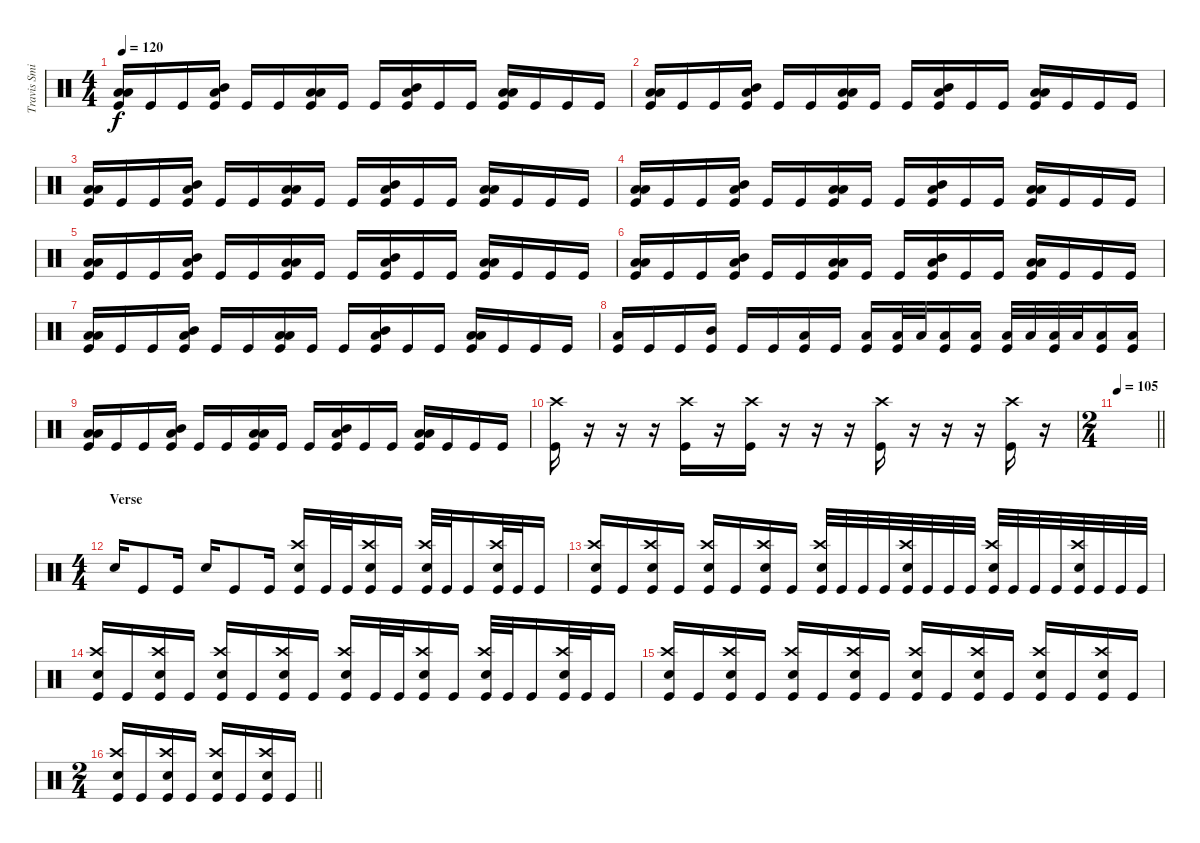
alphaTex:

\track ("Travis Smith" "Travis Smi") {instrument percussion}
\staff {score}
\articulation defaults
\ts (4 4)
\tempo 120
\clef neutral
\ks c
("Low Tom (hit)" "Low Floor Tom (hit)" "Kick (hit)").16{dy f} "Kick (hit)".16 "Kick (hit)".16 ("Mid Tom (hit)" "Low Floor Tom (hit)" "Kick (hit)").16 "Kick (hit)".16 "Kick (hit)".16 ("Low Tom (hit)" "Low Floor Tom (hit)" "Kick (hit)").16 "Kick (hit)".16 "Kick (hit)".16 ("Mid Tom (hit)" "Low Floor Tom (hit)" "Kick (hit)").16 "Kick (hit)".16 "Kick (hit)".16 ("Low Tom (hit)" "Low Floor Tom (hit)" "Kick (hit)").16 "Kick (hit)".16 "Kick (hit)".16 "Kick (hit)".16 |
("Low Tom (hit)" "Low Floor Tom (hit)" "Kick (hit)").16 "Kick (hit)".16 "Kick (hit)".16 ("Mid Tom (hit)" "Low Floor Tom (hit)" "Kick (hit)").16 "Kick (hit)".16 "Kick (hit)".16 ("Low Tom (hit)" "Low Floor Tom (hit)" "Kick (hit)").16 "Kick (hit)".16 "Kick (hit)".16 ("Mid Tom (hit)" "Low Floor Tom (hit)" "Kick (hit)").16 "Kick (hit)".16 "Kick (hit)".16 ("Low Tom (hit)" "Low Floor Tom (hit)" "Kick (hit)").16 "Kick (hit)".16 "Kick (hit)".16 "Kick (hit)".16 |
("Low Tom (hit)" "Low Floor Tom (hit)" "Kick (hit)").16 "Kick (hit)".16 "Kick (hit)".16 ("Mid Tom (hit)" "Low Floor Tom (hit)" "Kick (hit)").16 "Kick (hit)".16 "Kick (hit)".16 ("Low Tom (hit)" "Low Floor Tom (hit)" "Kick (hit)").16 "Kick (hit)".16 "Kick (hit)".16 ("Mid Tom (hit)" "Low Floor Tom (hit)" "Kick (hit)").16 "Kick (hit)".16 "Kick (hit)".16 ("Low Tom (hit)" "Low Floor Tom (hit)" "Kick (hit)").16 "Kick (hit)".16 "Kick (hit)".16 "Kick (hit)".16 |
("Low Tom (hit)" "Low Floor Tom (hit)" "Kick (hit)").16 "Kick (hit)".16 "Kick (hit)".16 ("Mid Tom (hit)" "Low Floor Tom (hit)" "Kick (hit)").16 "Kick (hit)".16 "Kick (hit)".16 ("Low Tom (hit)" "Low Floor Tom (hit)" "Kick (hit)").16 "Kick (hit)".16 "Kick (hit)".16 ("Mid Tom (hit)" "Low Floor Tom (hit)" "Kick (hit)").16 "Kick (hit)".16 "Kick (hit)".16 ("Low Tom (hit)" "Low Floor Tom (hit)" "Kick (hit)").16 "Kick (hit)".16 "Kick (hit)".16 "Kick (hit)".16 |
("Low Tom (hit)" "Low Floor Tom (hit)" "Kick (hit)").16 "Kick (hit)".16 "Kick (hit)".16 ("Mid Tom (hit)" "Low Floor Tom (hit)" "Kick (hit)").16 "Kick (hit)".16 "Kick (hit)".16 ("Low Tom (hit)" "Low Floor Tom (hit)" "Kick (hit)").16 "Kick (hit)".16 "Kick (hit)".16 ("Mid Tom (hit)" "Low Floor Tom (hit)" "Kick (hit)").16 "Kick (hit)".16 "Kick (hit)".16 ("Low Tom (hit)" "Low Floor Tom (hit)" "Kick (hit)").16 "Kick (hit)".16 "Kick (hit)".16 "Kick (hit)".16 |
("Low Tom (hit)" "Low Floor Tom (hit)" "Kick (hit)").16 "Kick (hit)".16 "Kick (hit)".16 ("Mid Tom (hit)" "Low Floor Tom (hit)" "Kick (hit)").16 "Kick (hit)".16 "Kick (hit)".16 ("Low Tom (hit)" "Low Floor Tom (hit)" "Kick (hit)").16 "Kick (hit)".16 "Kick (hit)".16 ("Mid Tom (hit)" "Low Floor Tom (hit)" "Kick (hit)").16 "Kick (hit)".16 "Kick (hit)".16 ("Low Tom (hit)" "Low Floor Tom (hit)" "Kick (hit)").16 "Kick (hit)".16 "Kick (hit)".16 "Kick (hit)".16 |
("Low Tom (hit)" "Low Floor Tom (hit)" "Kick (hit)").16 "Kick (hit)".16 "Kick (hit)".16 ("Mid Tom (hit)" "Low Floor Tom (hit)" "Kick (hit)").16 "Kick (hit)".16 "Kick (hit)".16 ("Low Tom (hit)" "Low Floor Tom (hit)" "Kick (hit)").16 "Kick (hit)".16 "Kick (hit)".16 ("Mid Tom (hit)" "Low Floor Tom (hit)" "Kick (hit)").16 "Kick (hit)".16 "Kick (hit)".16 ("Low Tom (hit)" "Low Floor Tom (hit)" "Kick (hit)").16 "Kick (hit)".16 "Kick (hit)".16 "Kick (hit)".16 |
("Low Tom (hit)" "Kick (hit)").16 "Kick (hit)".16 "Kick (hit)".16 ("Mid Tom (hit)" "Kick (hit)").16 "Kick (hit)".16 "Kick (hit)".16 ("Low Tom (hit)" "Kick (hit)").16 "Kick (hit)".16 ("Low Tom (hit)" "Kick (hit)").16 ("Low Tom (hit)" "Kick (hit)").32 "Low Tom (hit)".32 ("Low Tom (hit)" "Kick (hit)").16 ("Low Tom (hit)" "Kick (hit)").16 ("Low Floor Tom (hit)" "Kick (hit)").32 "Low Floor Tom (hit)".32 ("Low Floor Tom (hit)" "Kick (hit)").32 "Low Floor Tom (hit)".32 ("Low Floor Tom (hit)" "Kick (hit)").16 ("Low Floor Tom (hit)" "Kick (hit)").16 |
("Low Tom (hit)" "Low Floor Tom (hit)" "Kick (hit)").16 "Kick (hit)".16 "Kick (hit)".16 ("Mid Tom (hit)" "Low Floor Tom (hit)" "Kick (hit)").16 "Kick (hit)".16 "Kick (hit)".16 ("Low Tom (hit)" "Low Floor Tom (hit)" "Kick (hit)").16 "Kick (hit)".16 "Kick (hit)".16 ("Mid Tom (hit)" "Low Floor Tom (hit)" "Kick (hit)").16 "Kick (hit)".16 "Kick (hit)".16 ("Low Tom (hit)" "Low Floor Tom (hit)" "Kick (hit)").16 "Kick (hit)".16 "Kick (hit)".16 "Kick (hit)".16 |
("Crash high (hit)" "Kick (hit)").16 r.16 r.16 r.16 ("Crash high (hit)" "Kick (hit)").16 r.16 ("Crash high (hit)" "Kick (hit)").16 r.16 r.16 r.16 ("Crash high (hit)" "Kick (hit)").16 r.16 r.16 r.16 ("Crash high (hit)" "Kick (hit)").16 r.16 |
\ts (2 4)
\tempo 105
\barLineRight lightlight
|
\ts (4 4)
\section ("" "Verse")
"Snare (hit) 2".16 "Kick (hit)".8 "Kick (hit)".16 "Snare (hit) 2".16 "Kick (hit)".8 "Kick (hit)".16 ("Crash high (hit)" "Snare (hit) 2" "Kick (hit)").16 "Kick (hit)".32 "Kick (hit)".32 ("Crash high (hit)" "Snare (hit) 2" "Kick (hit)").16 "Kick (hit)".16 ("Crash high (hit)" "Snare (hit) 2" "Kick (hit)").32 "Kick (hit)".32 "Kick (hit)".16 ("Crash high (hit)" "Snare (hit) 2" "Kick (hit)").32 "Kick (hit)".32 "Kick (hit)".16 |
("Crash high (hit)" "Snare (hit) 2" "Kick (hit)").16 "Kick (hit)".16 ("Crash high (hit)" "Snare (hit) 2" "Kick (hit)").16 "Kick (hit)".16 ("Crash high (hit)" "Snare (hit) 2" "Kick (hit)").16 "Kick (hit)".16 ("Crash high (hit)" "Snare (hit) 2" "Kick (hit)").16 "Kick (hit)".16 ("Crash high (hit)" "Snare (hit) 2" "Kick (hit)").32 "Kick (hit)".32 "Kick (hit)".32 "Kick (hit)".32 ("Crash high (hit)" "Snare (hit) 2" "Kick (hit)").32 "Kick (hit)".32 "Kick (hit)".32 "Kick (hit)".32 ("Crash high (hit)" "Snare (hit) 2" "Kick (hit)").32 "Kick (hit)".32 "Kick (hit)".32 "Kick (hit)".32 ("Crash high (hit)" "Snare (hit) 2" "Kick (hit)").32 "Kick (hit)".32 "Kick (hit)".32 "Kick (hit)".32 |
("Crash high (hit)" "Snare (hit) 2" "Kick (hit)").16 "Kick (hit)".16 ("Crash high (hit)" "Snare (hit) 2" "Kick (hit)").16 "Kick (hit)".16 ("Crash high (hit)" "Snare (hit) 2" "Kick (hit)").16 "Kick (hit)".16 ("Crash high (hit)" "Snare (hit) 2" "Kick (hit)").16 "Kick (hit)".16 ("Crash high (hit)" "Snare (hit) 2" "Kick (hit)").16 "Kick (hit)".32 "Kick (hit)".32 ("Crash high (hit)" "Snare (hit) 2" "Kick (hit)").16 "Kick (hit)".16 ("Crash high (hit)" "Snare (hit) 2" "Kick (hit)").32 "Kick (hit)".32 "Kick (hit)".16 ("Crash high (hit)" "Snare (hit) 2" "Kick (hit)").32 "Kick (hit)".32 "Kick (hit)".16 |
("Crash high (hit)" "Snare (hit) 2" "Kick (hit)").16 "Kick (hit)".16 ("Crash high (hit)" "Snare (hit) 2" "Kick (hit)").16 "Kick (hit)".16 ("Crash high (hit)" "Snare (hit) 2" "Kick (hit)").16 "Kick (hit)".16 ("Crash high (hit)" "Snare (hit) 2" "Kick (hit)").16 "Kick (hit)".16 ("Crash high (hit)" "Snare (hit) 2" "Kick (hit)").16 "Kick (hit)".16 ("Crash high (hit)" "Snare (hit) 2" "Kick (hit)").16 "Kick (hit)".16 ("Crash high (hit)" "Snare (hit) 2" "Kick (hit)").16 "Kick (hit)".16 ("Crash high (hit)" "Snare (hit) 2" "Kick (hit)").16 "Kick (hit)".16 |
\ts (2 4)
\barLineRight lightlight
("Crash high (hit)" "Snare (hit) 2" "Kick (hit)").16 "Kick (hit)".16 ("Crash high (hit)" "Snare (hit) 2" "Kick (hit)").16 "Kick (hit)".16 ("Crash high (hit)" "Snare (hit) 2" "Kick (hit)").16 "Kick (hit)".16 ("Crash high (hit)" "Snare (hit) 2" "Kick (hit)").16 "Kick (hit)".16
